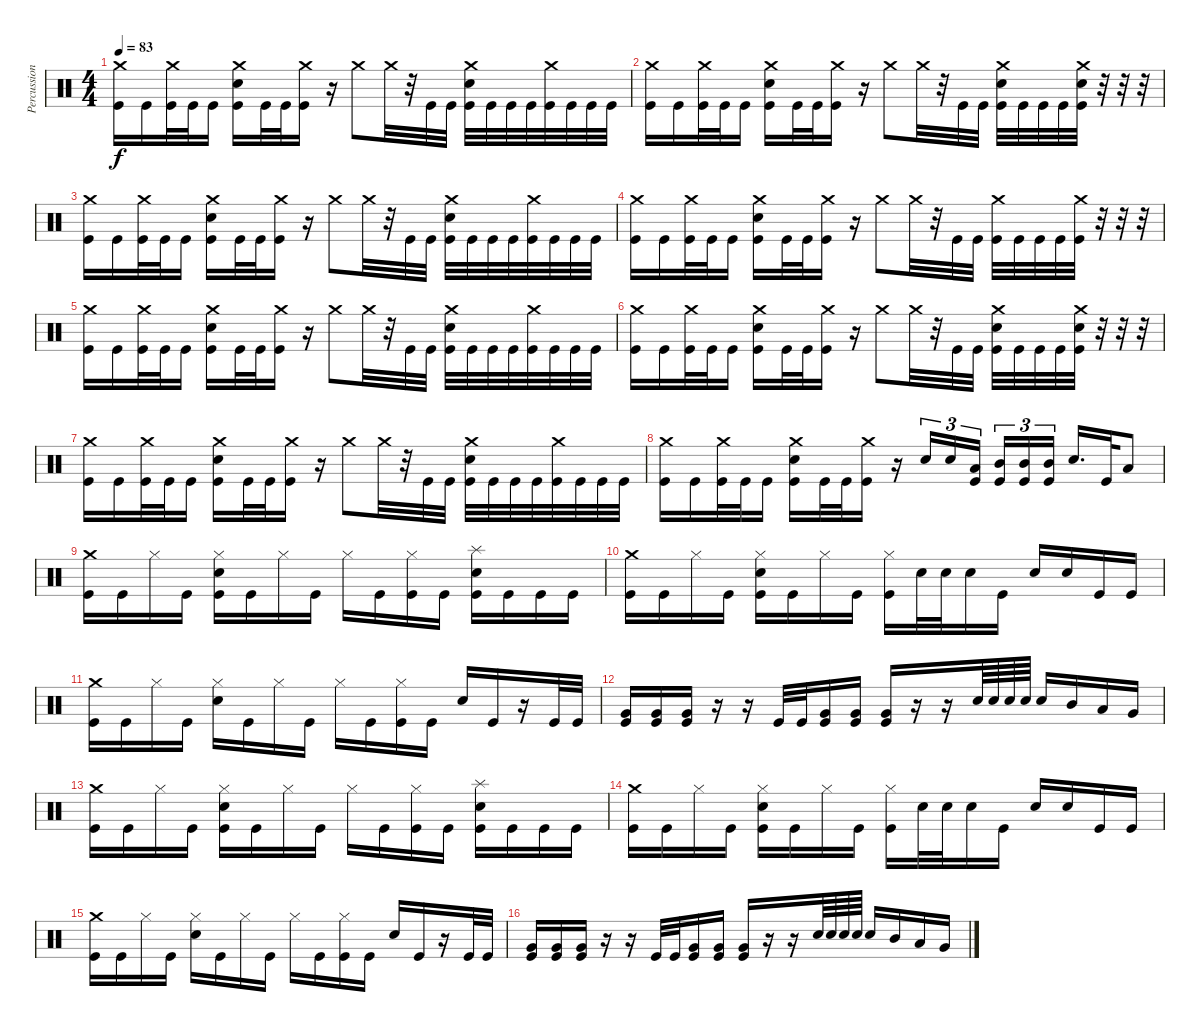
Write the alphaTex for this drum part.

\track ("Percussion" "Percussion") {instrument percussion}
\staff {score}
\articulation defaults
\ts (4 4)
\tempo 83
\clef neutral
\ks c
("Crash medium (hit)" "Kick (hit)").16{dy f} "Kick (hit)".16 ("Crash medium (hit)" "Kick (hit)").32 "Kick (hit)".32 "Kick (hit)".16 ("Crash medium (hit)" "Snare (hit) 2" "Kick (hit)").16 "Kick (hit)".32 "Kick (hit)".32 ("Crash medium (hit)" "Kick (hit)").16 r.16 "Crash medium (hit)".8 "Crash medium (hit)".32 r.32 "Kick (hit)".32 "Kick (hit)".32 ("Crash medium (hit)" "Snare (hit) 2" "Kick (hit)").32 "Kick (hit)".32 "Kick (hit)".32 "Kick (hit)".32 ("Crash medium (hit)" "Kick (hit)").32 "Kick (hit)".32 "Kick (hit)".32 "Kick (hit)".32 |
("Crash medium (hit)" "Kick (hit)").16 "Kick (hit)".16 ("Crash medium (hit)" "Kick (hit)").32 "Kick (hit)".32 "Kick (hit)".16 ("Crash medium (hit)" "Snare (hit) 2" "Kick (hit)").16 "Kick (hit)".32 "Kick (hit)".32 ("Crash medium (hit)" "Kick (hit)").16 r.16 "Crash medium (hit)".8 "Crash medium (hit)".32 r.32 "Kick (hit)".32 "Kick (hit)".32 ("Crash medium (hit)" "Snare (hit) 2" "Kick (hit)").32 "Kick (hit)".32 "Kick (hit)".32 "Kick (hit)".32 ("Crash medium (hit)" "Snare (hit) 2" "Kick (hit)").32 r.32 r.32 r.32 |
("Crash medium (hit)" "Kick (hit)").16 "Kick (hit)".16 ("Crash medium (hit)" "Kick (hit)").32 "Kick (hit)".32 "Kick (hit)".16 ("Crash medium (hit)" "Snare (hit) 2" "Kick (hit)").16 "Kick (hit)".32 "Kick (hit)".32 ("Crash medium (hit)" "Kick (hit)").16 r.16 "Crash medium (hit)".8 "Crash medium (hit)".32 r.32 "Kick (hit)".32 "Kick (hit)".32 ("Crash medium (hit)" "Snare (hit) 2" "Kick (hit)").32 "Kick (hit)".32 "Kick (hit)".32 "Kick (hit)".32 ("Crash medium (hit)" "Kick (hit)").32 "Kick (hit)".32 "Kick (hit)".32 "Kick (hit)".32 |
("Crash medium (hit)" "Kick (hit)").16 "Kick (hit)".16 ("Crash medium (hit)" "Kick (hit)").32 "Kick (hit)".32 "Kick (hit)".16 ("Crash medium (hit)" "Snare (hit) 2" "Kick (hit)").16 "Kick (hit)".32 "Kick (hit)".32 ("Crash medium (hit)" "Kick (hit)").16 r.16 "Crash medium (hit)".8 "Crash medium (hit)".32 r.32 "Kick (hit)".32 "Kick (hit)".32 ("Crash medium (hit)" "Kick (hit)").32 "Kick (hit)".32 "Kick (hit)".32 "Kick (hit)".32 ("Crash medium (hit)" "Kick (hit)").32 r.32 r.32 r.32 |
("Crash medium (hit)" "Kick (hit)").16 "Kick (hit)".16 ("Crash medium (hit)" "Kick (hit)").32 "Kick (hit)".32 "Kick (hit)".16 ("Crash medium (hit)" "Snare (hit) 2" "Kick (hit)").16 "Kick (hit)".32 "Kick (hit)".32 ("Crash medium (hit)" "Kick (hit)").16 r.16 "Crash medium (hit)".8 "Crash medium (hit)".32 r.32 "Kick (hit)".32 "Kick (hit)".32 ("Crash medium (hit)" "Snare (hit) 2" "Kick (hit)").32 "Kick (hit)".32 "Kick (hit)".32 "Kick (hit)".32 ("Crash medium (hit)" "Kick (hit)").32 "Kick (hit)".32 "Kick (hit)".32 "Kick (hit)".32 |
("Crash medium (hit)" "Kick (hit)").16 "Kick (hit)".16 ("Crash medium (hit)" "Kick (hit)").32 "Kick (hit)".32 "Kick (hit)".16 ("Crash medium (hit)" "Snare (hit) 2" "Kick (hit)").16 "Kick (hit)".32 "Kick (hit)".32 ("Crash medium (hit)" "Kick (hit)").16 r.16 "Crash medium (hit)".8 "Crash medium (hit)".32 r.32 "Kick (hit)".32 "Kick (hit)".32 ("Crash medium (hit)" "Snare (hit) 2" "Kick (hit)").32 "Kick (hit)".32 "Kick (hit)".32 "Kick (hit)".32 ("Crash medium (hit)" "Snare (hit) 2" "Kick (hit)").32 r.32 r.32 r.32 |
("Crash medium (hit)" "Kick (hit)").16 "Kick (hit)".16 ("Crash medium (hit)" "Kick (hit)").32 "Kick (hit)".32 "Kick (hit)".16 ("Crash medium (hit)" "Snare (hit) 2" "Kick (hit)").16 "Kick (hit)".32 "Kick (hit)".32 ("Crash medium (hit)" "Kick (hit)").16 r.16 "Crash medium (hit)".8 "Crash medium (hit)".32 r.32 "Kick (hit)".32 "Kick (hit)".32 ("Crash medium (hit)" "Snare (hit) 2" "Kick (hit)").32 "Kick (hit)".32 "Kick (hit)".32 "Kick (hit)".32 ("Crash medium (hit)" "Kick (hit)").32 "Kick (hit)".32 "Kick (hit)".32 "Kick (hit)".32 |
("Crash medium (hit)" "Kick (hit)").16 "Kick (hit)".16 ("Crash medium (hit)" "Kick (hit)").32 "Kick (hit)".32 "Kick (hit)".16 ("Crash medium (hit)" "Snare (hit) 2" "Kick (hit)").16 "Kick (hit)".32 "Kick (hit)".32 ("Crash medium (hit)" "Kick (hit)").16 r.16 "Snare (hit) 2".16{tu (3 2)} "Snare (hit) 2".16{tu (3 2)} ("Low Tom (hit)" "Kick (hit)").16{tu (3 2) beam splitsecondary} ("Mid Tom (hit)" "Kick (hit)").16{tu (3 2)} ("Mid Tom (hit)" "Kick (hit)").16{tu (3 2)} ("Mid Tom (hit)" "Kick (hit)").16{tu (3 2)} "Snare (hit) 2".16{d} "Kick (hit)".32 "Low Floor Tom (hit)".8 |
("Crash medium (hit)" "Kick (hit)").16 "Kick (hit)".16 "Hi-Hat (closed)".16 "Kick (hit)".16 ("Hi-Hat (closed)" "Snare (hit) 2" "Kick (hit)").16 "Kick (hit)".16 "Hi-Hat (closed)".16 "Kick (hit)".16 "Hi-Hat (closed)".16 "Kick (hit)".16 ("Hi-Hat (closed)" "Kick (hit)").16 "Kick (hit)".16 ("Splash (hit)" "Snare (hit) 2" "Kick (hit)").16 "Kick (hit)".16 "Kick (hit)".16 "Kick (hit)".16 |
("Crash medium (hit)" "Kick (hit)").16 "Kick (hit)".16 "Hi-Hat (closed)".16 "Kick (hit)".16 ("Hi-Hat (closed)" "Snare (hit) 2" "Kick (hit)").16 "Kick (hit)".16 "Hi-Hat (closed)".16 "Kick (hit)".16 ("Hi-Hat (closed)" "Kick (hit)").16 "Snare (hit) 2".32 "Snare (hit) 2".32 "Snare (hit) 2".16 "Kick (hit)".16 "Snare (hit) 2".16 "Snare (hit) 2".16 "Kick (hit)".16 "Kick (hit)".16 |
("Crash medium (hit)" "Kick (hit)").16 "Kick (hit)".16 "Hi-Hat (closed)".16 "Kick (hit)".16 ("Hi-Hat (closed)" "Snare (hit) 2").16 "Kick (hit)".16 "Hi-Hat (closed)".16 "Kick (hit)".16 "Hi-Hat (closed)".16 "Kick (hit)".16 ("Hi-Hat (closed)" "Kick (hit)").16 "Kick (hit)".16 "Snare (hit) 2".16 "Kick (hit)".16 r.16 "Kick (hit)".32 "Kick (hit)".32 |
("Very Low Tom (hit)" "Kick (hit)").16 ("Very Low Tom (hit)" "Kick (hit)").16 ("Very Low Tom (hit)" "Kick (hit)").16 r.16 r.16 "Kick (hit)".32 "Kick (hit)".32 ("Very Low Tom (hit)" "Kick (hit)").16 ("Very Low Tom (hit)" "Kick (hit)").16 ("Very Low Tom (hit)" "Kick (hit)").16 r.16 r.16 "Snare (hit) 2".64 "Snare (hit) 2".64 "Snare (hit) 2".64 "Snare (hit) 2".64 "Snare (hit) 2".16 "Mid Tom (hit)".16 "Low Tom (hit)".16 "Very Low Tom (hit)".16 |
("Crash medium (hit)" "Kick (hit)").16 "Kick (hit)".16 "Hi-Hat (closed)".16 "Kick (hit)".16 ("Hi-Hat (closed)" "Snare (hit) 2" "Kick (hit)").16 "Kick (hit)".16 "Hi-Hat (closed)".16 "Kick (hit)".16 "Hi-Hat (closed)".16 "Kick (hit)".16 ("Hi-Hat (closed)" "Kick (hit)").16 "Kick (hit)".16 ("Splash (hit)" "Snare (hit) 2" "Kick (hit)").16 "Kick (hit)".16 "Kick (hit)".16 "Kick (hit)".16 |
("Crash medium (hit)" "Kick (hit)").16 "Kick (hit)".16 "Hi-Hat (closed)".16 "Kick (hit)".16 ("Hi-Hat (closed)" "Snare (hit) 2" "Kick (hit)").16 "Kick (hit)".16 "Hi-Hat (closed)".16 "Kick (hit)".16 ("Hi-Hat (closed)" "Kick (hit)").16 "Snare (hit) 2".32 "Snare (hit) 2".32 "Snare (hit) 2".16 "Kick (hit)".16 "Snare (hit) 2".16 "Snare (hit) 2".16 "Kick (hit)".16 "Kick (hit)".16 |
("Crash medium (hit)" "Kick (hit)").16 "Kick (hit)".16 "Hi-Hat (closed)".16 "Kick (hit)".16 ("Hi-Hat (closed)" "Snare (hit) 2").16 "Kick (hit)".16 "Hi-Hat (closed)".16 "Kick (hit)".16 "Hi-Hat (closed)".16 "Kick (hit)".16 ("Hi-Hat (closed)" "Kick (hit)").16 "Kick (hit)".16 "Snare (hit) 2".16 "Kick (hit)".16 r.16 "Kick (hit)".32 "Kick (hit)".32 |
("Very Low Tom (hit)" "Kick (hit)").16 ("Very Low Tom (hit)" "Kick (hit)").16 ("Very Low Tom (hit)" "Kick (hit)").16 r.16 r.16 "Kick (hit)".32 "Kick (hit)".32 ("Very Low Tom (hit)" "Kick (hit)").16 ("Very Low Tom (hit)" "Kick (hit)").16 ("Very Low Tom (hit)" "Kick (hit)").16 r.16 r.16 "Snare (hit) 2".64 "Snare (hit) 2".64 "Snare (hit) 2".64 "Snare (hit) 2".64 "Snare (hit) 2".16 "Mid Tom (hit)".16 "Low Tom (hit)".16 "Very Low Tom (hit)".16
